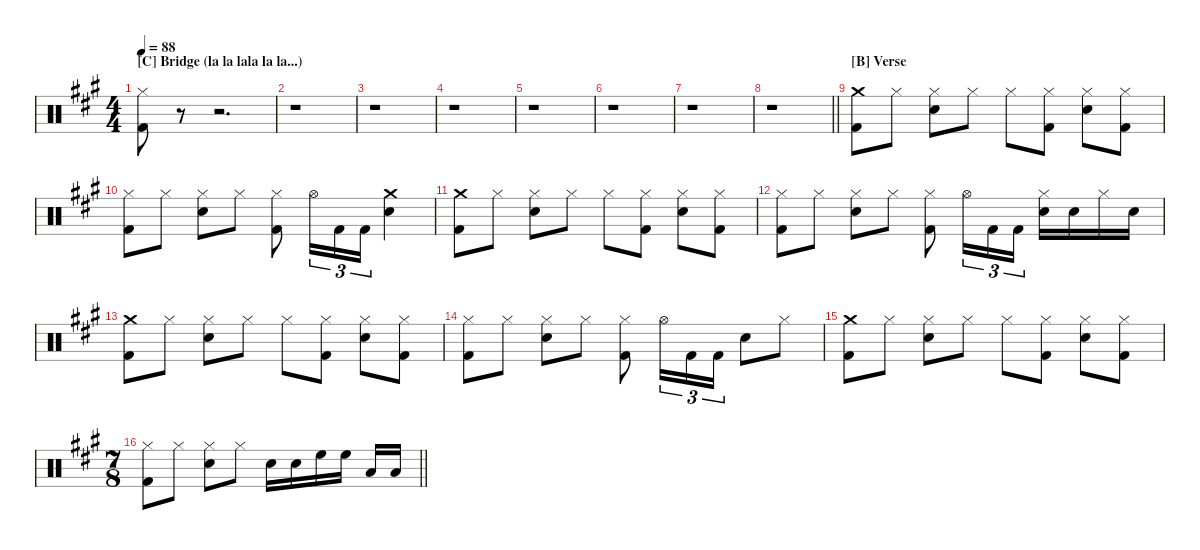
\hideDynamics
\bracketExtendMode nobrackets
\singleTrackTrackNamePolicy hidden
\multiTrackTrackNamePolicy hidden
\firstSystemTrackNameMode fullname
\firstSystemTrackNameOrientation horizontal
\otherSystemsTrackNameOrientation horizontal
\track ("Drumkit" "Drums") {defaultSystemsLayout 4 instrument percussion}
\staff {score}
\articulation defaults
\ts (4 4)
\beaming (8 2 2 2 2)
\section ("C" "Bridge (la la lala la la...)")
\scale
0.386139
\tempo 88
\accidentals auto
\clef neutral
\ottava regular
\simile none
\ks a
("Hi-Hat (closed)"{acc forcenatural} "Kick (hit) 2"{acc forcenatural}).8{dy f beam Down} r.8{beam Down} r.2{d beam Down} |
\scale
0.613861 r.1{beam Down} |
\scale
0.5 r.1{beam Down} |
\scale
0.5 r.1{beam Down} |
\scale
0.5 r.1{beam Down} |
\scale
0.5 r.1{beam Down} |
\scale
0.5 r.1{beam Down} |
\scale
0.5
\barLineRight lightlight
r.1{beam Down} |
\section ("B" "Verse")
\scale
0.5 ("Crash medium (hit)"{acc forcenatural} "Kick (hit) 2"{acc forcenatural}).8{beam Down} "Hi-Hat (closed)"{acc forcenatural}.8{beam Down} ("Hi-Hat (closed)"{acc forcenatural} "Snare (hit) 2"{acc forcenatural}).8{beam Down} "Hi-Hat (closed)"{acc forcenatural}.8{beam Down} "Hi-Hat (closed)"{acc forcenatural}.8{beam Down} ("Hi-Hat (closed)"{acc forcenatural} "Kick (hit) 2"{acc forcenatural}).8{beam Down} ("Hi-Hat (closed)"{acc forcenatural} "Snare (hit) 2"{acc forcenatural}).8{beam Down} ("Hi-Hat (closed)"{acc forcenatural} "Kick (hit) 2"{acc forcenatural}).8{beam Down} |
\scale
0.5 ("Hi-Hat (closed)"{acc forcenatural} "Kick (hit) 2"{acc forcenatural}).8{beam Down} "Hi-Hat (closed)"{acc forcenatural}.8{beam Down} ("Hi-Hat (closed)"{acc forcenatural} "Snare (hit) 2"{acc forcenatural}).8{beam Down} "Hi-Hat (closed)"{acc forcenatural}.8{beam Down} ("Hi-Hat (closed)"{acc forcenatural} "Kick (hit) 2"{acc forcenatural}).8{dy ff beam Down} "Hi-Hat (open)"{acc forcenatural}.16{tu (3 2) beam Down} "Kick (hit) 2"{acc forcenatural}.16{tu (3 2) beam Down} "Kick (hit) 2"{acc forcenatural}.16{tu (3 2) beam Down} ("Crash medium (hit)"{acc forcenatural} "Snare (hit) 2"{acc forcenatural}).4{beam Down} |
\scale
0.5 ("Crash medium (hit)"{acc forcenatural} "Kick (hit) 2"{acc forcenatural}).8{dy f beam Down} "Hi-Hat (closed)"{acc forcenatural}.8{beam Down} ("Hi-Hat (closed)"{acc forcenatural} "Snare (hit) 2"{acc forcenatural}).8{beam Down} "Hi-Hat (closed)"{acc forcenatural}.8{beam Down} "Hi-Hat (closed)"{acc forcenatural}.8{beam Down} ("Hi-Hat (closed)"{acc forcenatural} "Kick (hit) 2"{acc forcenatural}).8{beam Down} ("Hi-Hat (closed)"{acc forcenatural} "Snare (hit) 2"{acc forcenatural}).8{beam Down} ("Hi-Hat (closed)"{acc forcenatural} "Kick (hit) 2"{acc forcenatural}).8{beam Down} |
\scale
0.5 ("Hi-Hat (closed)"{acc forcenatural} "Kick (hit) 2"{acc forcenatural}).8{beam Down} "Hi-Hat (closed)"{acc forcenatural}.8{beam Down} ("Hi-Hat (closed)"{acc forcenatural} "Snare (hit) 2"{acc forcenatural}).8{beam Down} "Hi-Hat (closed)"{acc forcenatural}.8{beam Down} ("Hi-Hat (closed)"{acc forcenatural} "Kick (hit) 2"{acc forcenatural}).8{dy ff beam Down} "Hi-Hat (open)"{acc forcenatural}.16{tu (3 2) beam Down} "Kick (hit) 2"{acc forcenatural}.16{tu (3 2) beam Down} "Kick (hit) 2"{acc forcenatural}.16{tu (3 2) beam Down} ("Hi-Hat (closed)"{acc forcenatural} "Snare (hit) 2"{acc forcenatural}).16{beam Down} "Snare (hit) 2"{acc forcenatural}.16{beam Down} "Hi-Hat (closed)"{acc forcenatural}.16{beam Down} "Snare (hit) 2"{acc forcenatural}.16{beam Down} |
\scale
0.5 ("Crash medium (hit)"{acc forcenatural} "Kick (hit) 2"{acc forcenatural}).8{dy f beam Down} "Hi-Hat (closed)"{acc forcenatural}.8{beam Down} ("Hi-Hat (closed)"{acc forcenatural} "Snare (hit) 2"{acc forcenatural}).8{beam Down} "Hi-Hat (closed)"{acc forcenatural}.8{beam Down} "Hi-Hat (closed)"{acc forcenatural}.8{beam Down} ("Hi-Hat (closed)"{acc forcenatural} "Kick (hit) 2"{acc forcenatural}).8{beam Down} ("Hi-Hat (closed)"{acc forcenatural} "Snare (hit) 2"{acc forcenatural}).8{beam Down} ("Hi-Hat (closed)"{acc forcenatural} "Kick (hit) 2"{acc forcenatural}).8{beam Down} |
\scale
0.5 ("Hi-Hat (closed)"{acc forcenatural} "Kick (hit) 2"{acc forcenatural}).8{beam Down} "Hi-Hat (closed)"{acc forcenatural}.8{beam Down} ("Hi-Hat (closed)"{acc forcenatural} "Snare (hit) 2"{acc forcenatural}).8{beam Down} "Hi-Hat (closed)"{acc forcenatural}.8{beam Down} ("Hi-Hat (closed)"{acc forcenatural} "Kick (hit) 2"{acc forcenatural}).8{dy ff beam Down} "Hi-Hat (open)"{acc forcenatural}.16{tu (3 2) beam Down} "Kick (hit) 2"{acc forcenatural}.16{tu (3 2) beam Down} "Kick (hit) 2"{acc forcenatural}.16{tu (3 2) beam Down} "Snare (hit) 2"{acc forcenatural}.8{beam Down} "Hi-Hat (closed)"{acc forcenatural}.8{beam Down} |
\scale
0.511628 ("Crash medium (hit)"{acc forcenatural} "Kick (hit) 2"{acc forcenatural}).8{dy f beam Down} "Hi-Hat (closed)"{acc forcenatural}.8{beam Down} ("Hi-Hat (closed)"{acc forcenatural} "Snare (hit) 2"{acc forcenatural}).8{beam Down} "Hi-Hat (closed)"{acc forcenatural}.8{beam Down} "Hi-Hat (closed)"{acc forcenatural}.8{beam Down} ("Hi-Hat (closed)"{acc forcenatural} "Kick (hit) 2"{acc forcenatural}).8{beam Down} ("Hi-Hat (closed)"{acc forcenatural} "Snare (hit) 2"{acc forcenatural}).8{beam Down} ("Hi-Hat (closed)"{acc forcenatural} "Kick (hit) 2"{acc forcenatural}).8{beam Down} |
\ts (7 8)
\beaming (8 2 2 2 1)
\scale
0.488372
\barLineRight lightlight
("Hi-Hat (closed)"{acc forcenatural} "Kick (hit) 2"{acc forcenatural}).8{beam Down} "Hi-Hat (closed)"{acc forcenatural}.8{beam Down} ("Hi-Hat (closed)"{acc forcenatural} "Snare (hit) 2"{acc forcenatural}).8{beam Down} "Hi-Hat (closed)"{acc forcenatural}.8{dy ff beam Down} "Snare (hit) 2"{acc forcenatural}.16{beam Down} "Snare (hit) 2"{acc forcenatural}.16{beam Down} "High Floor Tom (hit)"{acc forcenatural}.16{beam Down} "High Floor Tom (hit)"{acc forcenatural}.16{beam Down} "Low Tom (hit)"{acc forcenatural}.16{beam Up} "Low Tom (hit)"{acc forcenatural}.16{beam Up}
